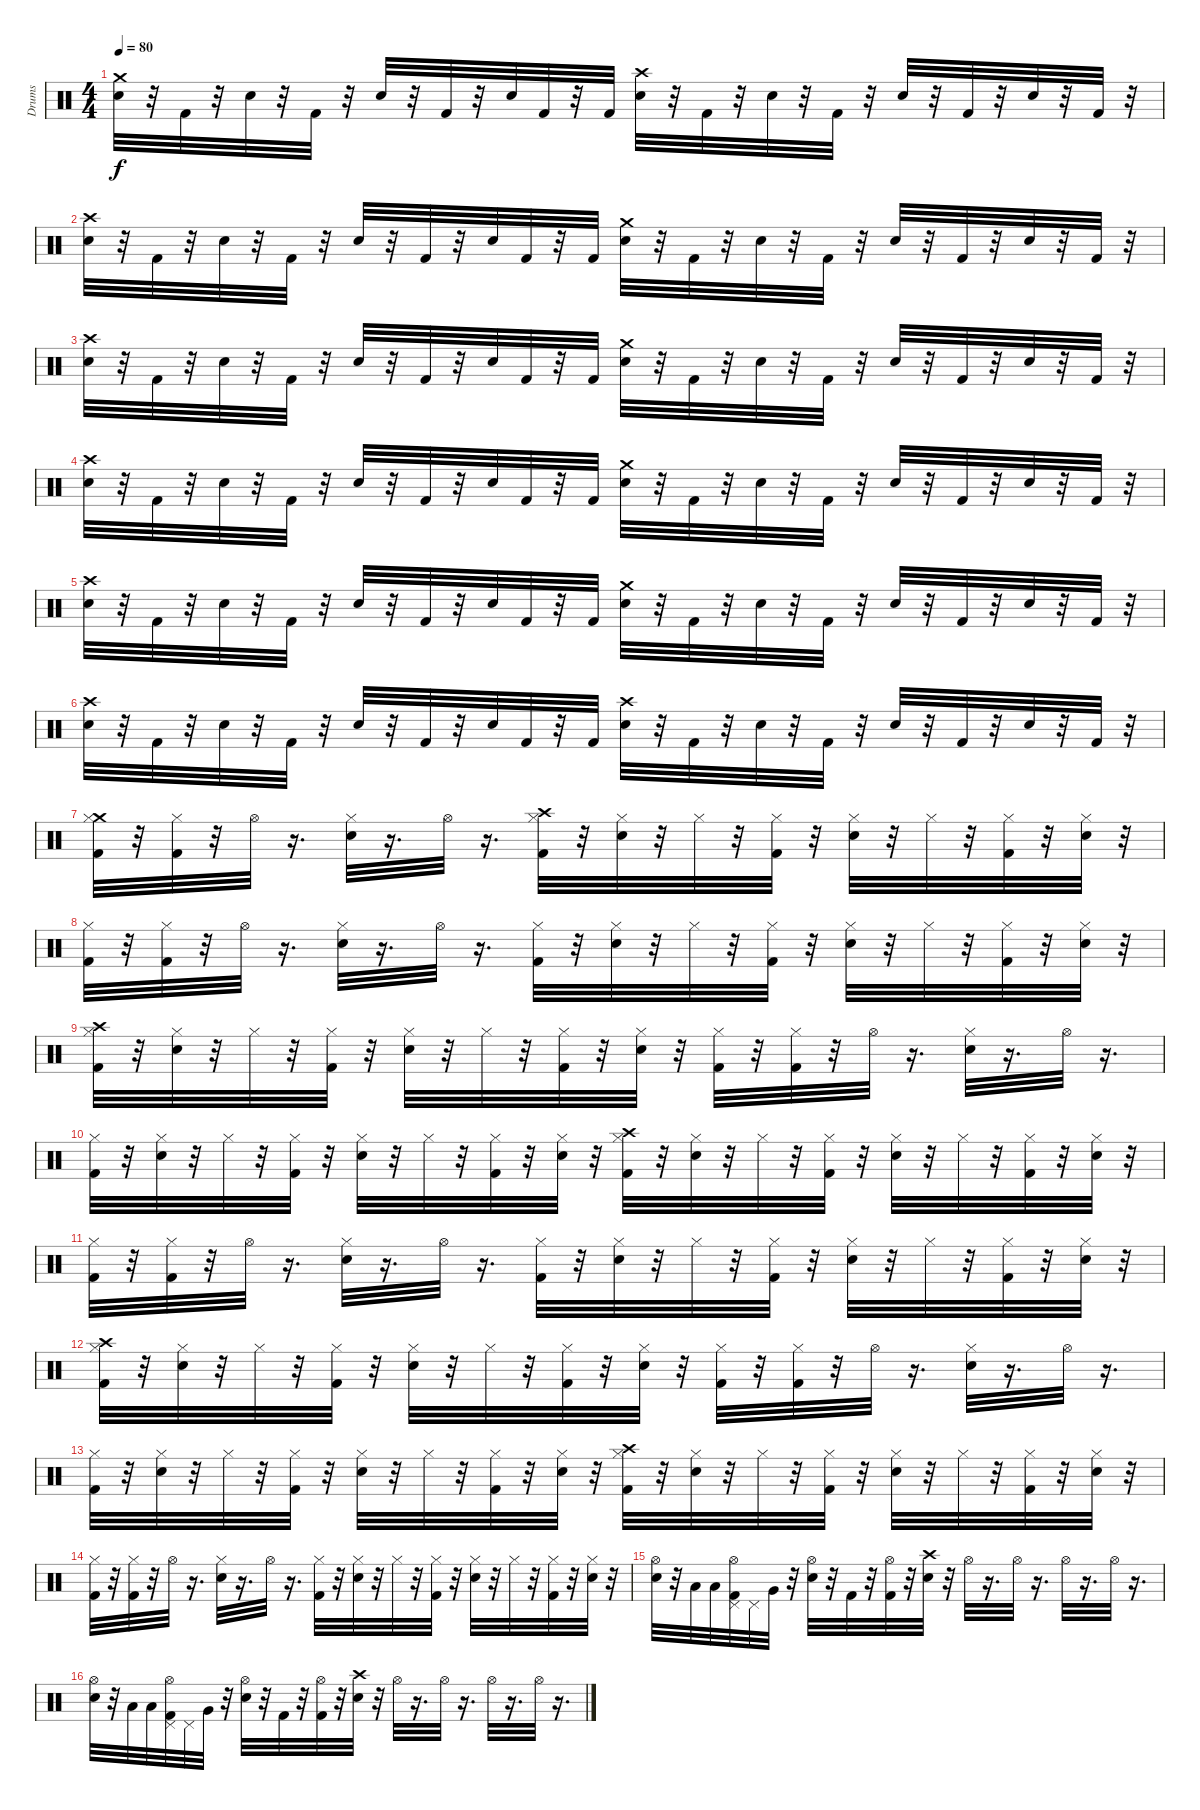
\track ("Drums" "Drums") {instrument percussion}
\staff {score}
\articulation defaults
\ts (4 4)
\tempo 80
\clef neutral
\ks c
("Crash medium (hit)" "Electric Snare (hit)").32{dy f} r.32 "Kick (hit) 2".32 r.32 "Electric Snare (hit)".32 r.32 "Kick (hit) 2".32 r.32 "Electric Snare (hit)".32 r.32 "Kick (hit) 2".32 r.32 "Electric Snare (hit)".32 "Kick (hit) 2".32 r.32 "Kick (hit) 2".32 ("Crash high (hit)" "Electric Snare (hit)").32 r.32 "Kick (hit) 2".32 r.32 "Electric Snare (hit)".32 r.32 "Kick (hit) 2".32 r.32 "Electric Snare (hit)".32 r.32 "Kick (hit) 2".32 r.32 "Electric Snare (hit)".32 r.32 "Kick (hit) 2".32 r.32 |
("Crash high (hit)" "Electric Snare (hit)").32 r.32 "Kick (hit) 2".32 r.32 "Electric Snare (hit)".32 r.32 "Kick (hit) 2".32 r.32 "Electric Snare (hit)".32 r.32 "Kick (hit) 2".32 r.32 "Electric Snare (hit)".32 "Kick (hit) 2".32 r.32 "Kick (hit) 2".32 ("Crash medium (hit)" "Electric Snare (hit)").32 r.32 "Kick (hit) 2".32 r.32 "Electric Snare (hit)".32 r.32 "Kick (hit) 2".32 r.32 "Electric Snare (hit)".32 r.32 "Kick (hit) 2".32 r.32 "Electric Snare (hit)".32 r.32 "Kick (hit) 2".32 r.32 |
("Crash high (hit)" "Electric Snare (hit)").32 r.32 "Kick (hit) 2".32 r.32 "Electric Snare (hit)".32 r.32 "Kick (hit) 2".32 r.32 "Electric Snare (hit)".32 r.32 "Kick (hit) 2".32 r.32 "Electric Snare (hit)".32 "Kick (hit) 2".32 r.32 "Kick (hit) 2".32 ("Crash medium (hit)" "Electric Snare (hit)").32 r.32 "Kick (hit) 2".32 r.32 "Electric Snare (hit)".32 r.32 "Kick (hit) 2".32 r.32 "Electric Snare (hit)".32 r.32 "Kick (hit) 2".32 r.32 "Electric Snare (hit)".32 r.32 "Kick (hit) 2".32 r.32 |
("Crash high (hit)" "Electric Snare (hit)").32 r.32 "Kick (hit) 2".32 r.32 "Electric Snare (hit)".32 r.32 "Kick (hit) 2".32 r.32 "Electric Snare (hit)".32 r.32 "Kick (hit) 2".32 r.32 "Electric Snare (hit)".32 "Kick (hit) 2".32 r.32 "Kick (hit) 2".32 ("Crash medium (hit)" "Electric Snare (hit)").32 r.32 "Kick (hit) 2".32 r.32 "Electric Snare (hit)".32 r.32 "Kick (hit) 2".32 r.32 "Electric Snare (hit)".32 r.32 "Kick (hit) 2".32 r.32 "Electric Snare (hit)".32 r.32 "Kick (hit) 2".32 r.32 |
("Crash high (hit)" "Electric Snare (hit)").32 r.32 "Kick (hit) 2".32 r.32 "Electric Snare (hit)".32 r.32 "Kick (hit) 2".32 r.32 "Electric Snare (hit)".32 r.32 "Kick (hit) 2".32 r.32 "Electric Snare (hit)".32 "Kick (hit) 2".32 r.32 "Kick (hit) 2".32 ("Crash medium (hit)" "Electric Snare (hit)").32 r.32 "Kick (hit) 2".32 r.32 "Electric Snare (hit)".32 r.32 "Kick (hit) 2".32 r.32 "Electric Snare (hit)".32 r.32 "Kick (hit) 2".32 r.32 "Electric Snare (hit)".32 r.32 "Kick (hit) 2".32 r.32 |
("Crash high (hit)" "Electric Snare (hit)").32 r.32 "Kick (hit) 2".32 r.32 "Electric Snare (hit)".32 r.32 "Kick (hit) 2".32 r.32 "Electric Snare (hit)".32 r.32 "Kick (hit) 2".32 r.32 "Electric Snare (hit)".32 "Kick (hit) 2".32 r.32 "Kick (hit) 2".32 ("Crash high (hit)" "Electric Snare (hit)").32 r.32 "Kick (hit) 2".32 r.32 "Electric Snare (hit)".32 r.32 "Kick (hit) 2".32 r.32 "Electric Snare (hit)".32 r.32 "Kick (hit) 2".32 r.32 "Electric Snare (hit)".32 r.32 "Kick (hit) 2".32 r.32 |
("Crash medium (hit)" "Hi-Hat (closed)" "Kick (hit) 2").32 r.32 ("Kick (hit) 2" "Hi-Hat (closed)").32 r.32 "Hi-Hat (open)".32 r.16{d} ("Hi-Hat (closed)" "Electric Snare (hit)").32 r.16{d} "Hi-Hat (open)".32 r.16{d} ("Hi-Hat (closed)" "Crash high (hit)" "Kick (hit) 2").32 r.32 ("Electric Snare (hit)" "Hi-Hat (closed)").32 r.32 "Hi-Hat (closed)".32 r.32 ("Hi-Hat (closed)" "Kick (hit) 2").32 r.32 ("Hi-Hat (closed)" "Electric Snare (hit)").32 r.32 "Hi-Hat (closed)".32 r.32 ("Kick (hit) 2" "Hi-Hat (closed)").32 r.32 ("Electric Snare (hit)" "Hi-Hat (closed)").32 r.32 |
("Kick (hit) 2" "Hi-Hat (closed)").32 r.32 ("Hi-Hat (closed)" "Kick (hit) 2").32 r.32 "Hi-Hat (open)".32 r.16{d} ("Hi-Hat (closed)" "Electric Snare (hit)").32 r.16{d} "Hi-Hat (open)".32 r.16{d} ("Hi-Hat (closed)" "Kick (hit) 2").32 r.32 ("Electric Snare (hit)" "Hi-Hat (closed)").32 r.32 "Hi-Hat (closed)".32 r.32 ("Kick (hit) 2" "Hi-Hat (closed)").32 r.32 ("Electric Snare (hit)" "Hi-Hat (closed)").32 r.32 "Hi-Hat (closed)".32 r.32 ("Kick (hit) 2" "Hi-Hat (closed)").32 r.32 ("Electric Snare (hit)" "Hi-Hat (closed)").32 r.32 |
("Crash high (hit)" "Hi-Hat (closed)" "Kick (hit) 2").32 r.32 ("Electric Snare (hit)" "Hi-Hat (closed)").32 r.32 "Hi-Hat (closed)".32 r.32 ("Kick (hit) 2" "Hi-Hat (closed)").32 r.32 ("Electric Snare (hit)" "Hi-Hat (closed)").32 r.32 "Hi-Hat (closed)".32 r.32 ("Kick (hit) 2" "Hi-Hat (closed)").32 r.32 ("Electric Snare (hit)" "Hi-Hat (closed)").32 r.32 ("Kick (hit) 2" "Hi-Hat (closed)").32 r.32 ("Hi-Hat (closed)" "Kick (hit) 2").32 r.32 "Hi-Hat (open)".32 r.16{d} ("Hi-Hat (closed)" "Electric Snare (hit)").32 r.16{d} "Hi-Hat (open)".32 r.16{d} |
("Hi-Hat (closed)" "Kick (hit) 2").32 r.32 ("Electric Snare (hit)" "Hi-Hat (closed)").32 r.32 "Hi-Hat (closed)".32 r.32 ("Kick (hit) 2" "Hi-Hat (closed)").32 r.32 ("Electric Snare (hit)" "Hi-Hat (closed)").32 r.32 "Hi-Hat (closed)".32 r.32 ("Kick (hit) 2" "Hi-Hat (closed)").32 r.32 ("Electric Snare (hit)" "Hi-Hat (closed)").32 r.32 ("Crash high (hit)" "Hi-Hat (closed)" "Kick (hit) 2").32 r.32 ("Electric Snare (hit)" "Hi-Hat (closed)").32 r.32 "Hi-Hat (closed)".32 r.32 ("Kick (hit) 2" "Hi-Hat (closed)").32 r.32 ("Electric Snare (hit)" "Hi-Hat (closed)").32 r.32 "Hi-Hat (closed)".32 r.32 ("Kick (hit) 2" "Hi-Hat (closed)").32 r.32 ("Electric Snare (hit)" "Hi-Hat (closed)").32 r.32 |
("Kick (hit) 2" "Hi-Hat (closed)").32 r.32 ("Hi-Hat (closed)" "Kick (hit) 2").32 r.32 "Hi-Hat (open)".32 r.16{d} ("Hi-Hat (closed)" "Electric Snare (hit)").32 r.16{d} "Hi-Hat (open)".32 r.16{d} ("Hi-Hat (closed)" "Kick (hit) 2").32 r.32 ("Electric Snare (hit)" "Hi-Hat (closed)").32 r.32 "Hi-Hat (closed)".32 r.32 ("Kick (hit) 2" "Hi-Hat (closed)").32 r.32 ("Electric Snare (hit)" "Hi-Hat (closed)").32 r.32 "Hi-Hat (closed)".32 r.32 ("Kick (hit) 2" "Hi-Hat (closed)").32 r.32 ("Electric Snare (hit)" "Hi-Hat (closed)").32 r.32 |
("Crash high (hit)" "Hi-Hat (closed)" "Kick (hit) 2").32 r.32 ("Electric Snare (hit)" "Hi-Hat (closed)").32 r.32 "Hi-Hat (closed)".32 r.32 ("Kick (hit) 2" "Hi-Hat (closed)").32 r.32 ("Electric Snare (hit)" "Hi-Hat (closed)").32 r.32 "Hi-Hat (closed)".32 r.32 ("Kick (hit) 2" "Hi-Hat (closed)").32 r.32 ("Electric Snare (hit)" "Hi-Hat (closed)").32 r.32 ("Kick (hit) 2" "Hi-Hat (closed)").32 r.32 ("Hi-Hat (closed)" "Kick (hit) 2").32 r.32 "Hi-Hat (open)".32 r.16{d} ("Hi-Hat (closed)" "Electric Snare (hit)").32 r.16{d} "Hi-Hat (open)".32 r.16{d} |
("Hi-Hat (closed)" "Kick (hit) 2").32 r.32 ("Electric Snare (hit)" "Hi-Hat (closed)").32 r.32 "Hi-Hat (closed)".32 r.32 ("Kick (hit) 2" "Hi-Hat (closed)").32 r.32 ("Electric Snare (hit)" "Hi-Hat (closed)").32 r.32 "Hi-Hat (closed)".32 r.32 ("Kick (hit) 2" "Hi-Hat (closed)").32 r.32 ("Electric Snare (hit)" "Hi-Hat (closed)").32 r.32 ("Crash high (hit)" "Hi-Hat (closed)" "Kick (hit) 2").32 r.32 ("Electric Snare (hit)" "Hi-Hat (closed)").32 r.32 "Hi-Hat (closed)".32 r.32 ("Kick (hit) 2" "Hi-Hat (closed)").32 r.32 ("Electric Snare (hit)" "Hi-Hat (closed)").32 r.32 "Hi-Hat (closed)".32 r.32 ("Kick (hit) 2" "Hi-Hat (closed)").32 r.32 ("Electric Snare (hit)" "Hi-Hat (closed)").32 r.32 |
("Kick (hit) 2" "Hi-Hat (closed)").32 r.32 ("Hi-Hat (closed)" "Kick (hit) 2").32 r.32 "Hi-Hat (open)".32 r.16{d} ("Hi-Hat (closed)" "Electric Snare (hit)").32 r.16{d} "Hi-Hat (open)".32 r.16{d} ("Hi-Hat (closed)" "Kick (hit) 2").32 r.32 ("Electric Snare (hit)" "Hi-Hat (closed)").32 r.32 "Hi-Hat (closed)".32 r.32 ("Kick (hit) 2" "Hi-Hat (closed)").32 r.32 ("Electric Snare (hit)" "Hi-Hat (closed)").32 r.32 "Hi-Hat (closed)".32 r.32 ("Kick (hit) 2" "Hi-Hat (closed)").32 r.32 ("Electric Snare (hit)" "Hi-Hat (closed)").32 r.32 |
("Hi-Hat (open)" "Electric Snare (hit)").32 r.32 "Low Tom (hit)".32 "Low Tom (hit)".32 ("Hi-Hat (open)" "Kick (hit) 2" "Pedal Hi-Hat (hit)").32 "Pedal Hi-Hat (hit)".32 "Very Low Tom (hit)".32 r.32 ("Electric Snare (hit)" "Hi-Hat (open)").32 r.32 "Kick (hit) 2".32 r.32 ("Hi-Hat (open)" "Kick (hit) 2").32 r.32 ("Crash high (hit)" "Electric Snare (hit)").32 r.32 "Hi-Hat (open)".32 r.16{d} "Hi-Hat (open)".32 r.16{d} "Hi-Hat (open)".32 r.16{d} "Hi-Hat (open)".32 r.16{d} |
("Hi-Hat (open)" "Electric Snare (hit)").32 r.32 "Low Tom (hit)".32 "Low Tom (hit)".32 ("Hi-Hat (open)" "Pedal Hi-Hat (hit)" "Kick (hit) 2").32 "Pedal Hi-Hat (hit)".32 "Very Low Tom (hit)".32 r.32 ("Hi-Hat (open)" "Electric Snare (hit)").32 r.32 "Kick (hit) 2".32 r.32 ("Hi-Hat (open)" "Kick (hit) 2").32 r.32 ("Crash high (hit)" "Electric Snare (hit)").32 r.32 "Hi-Hat (open)".32 r.16{d} "Hi-Hat (open)".32 r.16{d} "Hi-Hat (open)".32 r.16{d} "Hi-Hat (open)".32 r.16{d}
